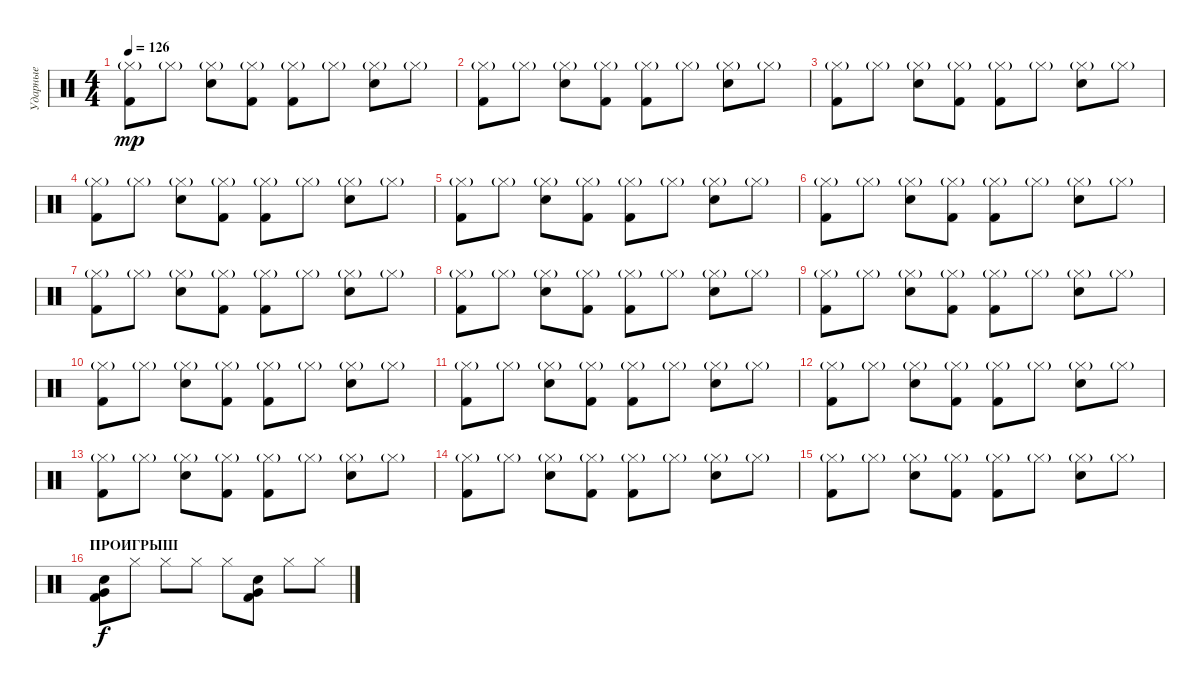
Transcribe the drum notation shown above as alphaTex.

\track ("Ударные" "Ударные") {instrument percussion}
\staff {score}
\articulation defaults
\ts (4 4)
\tempo 126
\clef neutral
\ks c
("Hi-Hat (closed)"{g} "Kick (hit) 2").8{dy mp} "Hi-Hat (closed)"{g}.8 ("Hi-Hat (closed)"{g} "Snare (hit) 2").8 ("Hi-Hat (closed)"{g} "Kick (hit) 2").8 ("Hi-Hat (closed)"{g} "Kick (hit) 2").8 "Hi-Hat (closed)"{g}.8 ("Hi-Hat (closed)"{g} "Snare (hit) 2").8 "Hi-Hat (closed)"{g}.8 |
("Hi-Hat (closed)"{g} "Kick (hit) 2").8 "Hi-Hat (closed)"{g}.8 ("Hi-Hat (closed)"{g} "Snare (hit) 2").8 ("Hi-Hat (closed)"{g} "Kick (hit) 2").8 ("Hi-Hat (closed)"{g} "Kick (hit) 2").8 "Hi-Hat (closed)"{g}.8 ("Hi-Hat (closed)"{g} "Snare (hit) 2").8 "Hi-Hat (closed)"{g}.8 |
("Hi-Hat (closed)"{g} "Kick (hit) 2").8 "Hi-Hat (closed)"{g}.8 ("Hi-Hat (closed)"{g} "Snare (hit) 2").8 ("Hi-Hat (closed)"{g} "Kick (hit) 2").8 ("Hi-Hat (closed)"{g} "Kick (hit) 2").8 "Hi-Hat (closed)"{g}.8 ("Hi-Hat (closed)"{g} "Snare (hit) 2").8 "Hi-Hat (closed)"{g}.8 |
("Hi-Hat (closed)"{g} "Kick (hit) 2").8 "Hi-Hat (closed)"{g}.8 ("Hi-Hat (closed)"{g} "Snare (hit) 2").8 ("Hi-Hat (closed)"{g} "Kick (hit) 2").8 ("Hi-Hat (closed)"{g} "Kick (hit) 2").8 "Hi-Hat (closed)"{g}.8 ("Hi-Hat (closed)"{g} "Snare (hit) 2").8 "Hi-Hat (closed)"{g}.8 |
("Hi-Hat (closed)"{g} "Kick (hit) 2").8 "Hi-Hat (closed)"{g}.8 ("Hi-Hat (closed)"{g} "Snare (hit) 2").8 ("Hi-Hat (closed)"{g} "Kick (hit) 2").8 ("Hi-Hat (closed)"{g} "Kick (hit) 2").8 "Hi-Hat (closed)"{g}.8 ("Hi-Hat (closed)"{g} "Snare (hit) 2").8 "Hi-Hat (closed)"{g}.8 |
("Hi-Hat (closed)"{g} "Kick (hit) 2").8 "Hi-Hat (closed)"{g}.8 ("Hi-Hat (closed)"{g} "Snare (hit) 2").8 ("Hi-Hat (closed)"{g} "Kick (hit) 2").8 ("Hi-Hat (closed)"{g} "Kick (hit) 2").8 "Hi-Hat (closed)"{g}.8 ("Hi-Hat (closed)"{g} "Snare (hit) 2").8 "Hi-Hat (closed)"{g}.8 |
("Hi-Hat (closed)"{g} "Kick (hit) 2").8 "Hi-Hat (closed)"{g}.8 ("Hi-Hat (closed)"{g} "Snare (hit) 2").8 ("Hi-Hat (closed)"{g} "Kick (hit) 2").8 ("Hi-Hat (closed)"{g} "Kick (hit) 2").8 "Hi-Hat (closed)"{g}.8 ("Hi-Hat (closed)"{g} "Snare (hit) 2").8 "Hi-Hat (closed)"{g}.8 |
("Hi-Hat (closed)"{g} "Kick (hit) 2").8 "Hi-Hat (closed)"{g}.8 ("Hi-Hat (closed)"{g} "Snare (hit) 2").8 ("Hi-Hat (closed)"{g} "Kick (hit) 2").8 ("Hi-Hat (closed)"{g} "Kick (hit) 2").8 "Hi-Hat (closed)"{g}.8 ("Hi-Hat (closed)"{g} "Snare (hit) 2").8 "Hi-Hat (closed)"{g}.8 |
("Hi-Hat (closed)"{g} "Kick (hit) 2").8 "Hi-Hat (closed)"{g}.8 ("Hi-Hat (closed)"{g} "Snare (hit) 2").8 ("Hi-Hat (closed)"{g} "Kick (hit) 2").8 ("Hi-Hat (closed)"{g} "Kick (hit) 2").8 "Hi-Hat (closed)"{g}.8 ("Hi-Hat (closed)"{g} "Snare (hit) 2").8 "Hi-Hat (closed)"{g}.8 |
("Hi-Hat (closed)"{g} "Kick (hit) 2").8 "Hi-Hat (closed)"{g}.8 ("Hi-Hat (closed)"{g} "Snare (hit) 2").8 ("Hi-Hat (closed)"{g} "Kick (hit) 2").8 ("Hi-Hat (closed)"{g} "Kick (hit) 2").8 "Hi-Hat (closed)"{g}.8 ("Hi-Hat (closed)"{g} "Snare (hit) 2").8 "Hi-Hat (closed)"{g}.8 |
("Hi-Hat (closed)"{g} "Kick (hit) 2").8 "Hi-Hat (closed)"{g}.8 ("Hi-Hat (closed)"{g} "Snare (hit) 2").8 ("Hi-Hat (closed)"{g} "Kick (hit) 2").8 ("Hi-Hat (closed)"{g} "Kick (hit) 2").8 "Hi-Hat (closed)"{g}.8 ("Hi-Hat (closed)"{g} "Snare (hit) 2").8 "Hi-Hat (closed)"{g}.8 |
("Hi-Hat (closed)"{g} "Kick (hit) 2").8 "Hi-Hat (closed)"{g}.8 ("Hi-Hat (closed)"{g} "Snare (hit) 2").8 ("Hi-Hat (closed)"{g} "Kick (hit) 2").8 ("Hi-Hat (closed)"{g} "Kick (hit) 2").8 "Hi-Hat (closed)"{g}.8 ("Hi-Hat (closed)"{g} "Snare (hit) 2").8 "Hi-Hat (closed)"{g}.8 |
("Hi-Hat (closed)"{g} "Kick (hit) 2").8 "Hi-Hat (closed)"{g}.8 ("Hi-Hat (closed)"{g} "Snare (hit) 2").8 ("Hi-Hat (closed)"{g} "Kick (hit) 2").8 ("Hi-Hat (closed)"{g} "Kick (hit) 2").8 "Hi-Hat (closed)"{g}.8 ("Hi-Hat (closed)"{g} "Snare (hit) 2").8 "Hi-Hat (closed)"{g}.8 |
("Hi-Hat (closed)"{g} "Kick (hit) 2").8 "Hi-Hat (closed)"{g}.8 ("Hi-Hat (closed)"{g} "Snare (hit) 2").8 ("Hi-Hat (closed)"{g} "Kick (hit) 2").8 ("Hi-Hat (closed)"{g} "Kick (hit) 2").8 "Hi-Hat (closed)"{g}.8 ("Hi-Hat (closed)"{g} "Snare (hit) 2").8 "Hi-Hat (closed)"{g}.8 |
("Hi-Hat (closed)"{g} "Kick (hit) 2").8 "Hi-Hat (closed)"{g}.8 ("Hi-Hat (closed)"{g} "Snare (hit) 2").8 ("Hi-Hat (closed)"{g} "Kick (hit) 2").8 ("Hi-Hat (closed)"{g} "Kick (hit) 2").8 "Hi-Hat (closed)"{g}.8 ("Hi-Hat (closed)"{g} "Snare (hit) 2").8 "Hi-Hat (closed)"{g}.8 |
\section ("" "ПРОИГРЫШ")
("Snare (hit) 2" "Very Low Tom (hit)" "Kick (hit) 2").8{dy f} "Hi-Hat (closed)".8 "Hi-Hat (closed)".8 "Hi-Hat (closed)".8 "Hi-Hat (closed)".8 ("Snare (hit) 2" "Very Low Tom (hit)" "Kick (hit) 2").8 "Hi-Hat (closed)".8 "Hi-Hat (closed)".8
